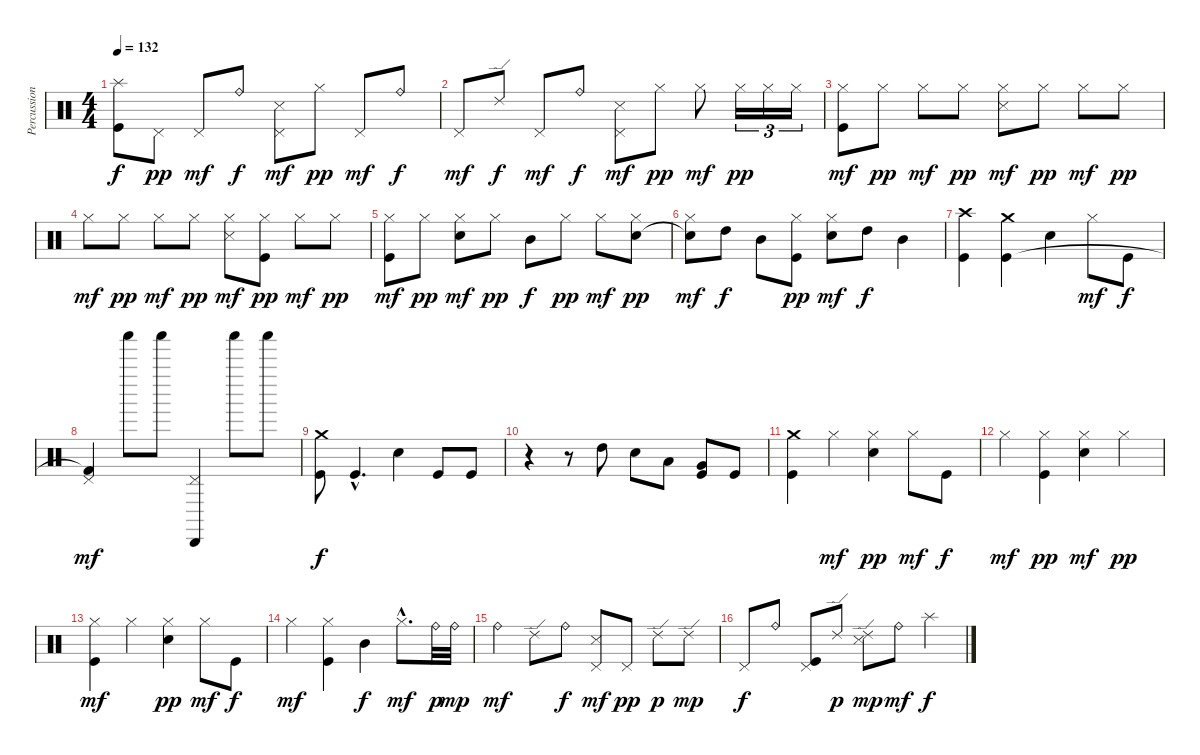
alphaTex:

\track ("Percussion" "Percussion") {instrument percussion}
\staff {score}
\articulation defaults
\ts (4 4)
\tempo 132
\clef neutral
\ks c
("Splash (hit)" "Kick (hit)").8{dy f} "Pedal Hi-Hat (hit)".8{dy pp} "Pedal Hi-Hat (hit)".8{dy mf} "Ride (bell)".8{dy f} ("Pedal Hi-Hat (hit)" "Snare (side stick) 3").8{dy mf} "Hi-Hat (closed)".8{dy pp} "Pedal Hi-Hat (hit)".8{dy mf} "Ride (bell)".8{dy f} |
"Pedal Hi-Hat (hit)".8{dy mf} "Ride (edge) 2".8{dy f} "Pedal Hi-Hat (hit)".8{dy mf} "Ride (bell)".8{dy f} ("Pedal Hi-Hat (hit)" "Snare (side stick) 3").8{dy mf} "Hi-Hat (closed)".8{dy pp} "Hi-Hat (closed)".8{dy mf} "Hi-Hat (closed)".16{tu (3 2) dy pp} "Hi-Hat (closed)".16{tu (3 2)} "Hi-Hat (closed)".16{tu (3 2)} |
("Hi-Hat (closed)" "Kick (hit)").8{dy mf} "Hi-Hat (closed)".8{dy pp} "Hi-Hat (closed)".8{dy mf} "Hi-Hat (closed)".8{dy pp} ("Hi-Hat (closed)" "Snare (side stick) 3").8{dy mf} "Hi-Hat (closed)".8{dy pp} "Hi-Hat (closed)".8{dy mf} "Hi-Hat (closed)".8{dy pp} |
"Hi-Hat (closed)".8{dy mf} "Hi-Hat (closed)".8{dy pp} "Hi-Hat (closed)".8{dy mf} "Hi-Hat (closed)".8{dy pp} ("Hi-Hat (closed)" "Snare (side stick) 3").8{dy mf} ("Hi-Hat (closed)" "Kick (hit)").8{dy pp} "Hi-Hat (closed)".8{dy mf} "Hi-Hat (closed)".8{dy pp} |
("Hi-Hat (closed)" "Kick (hit)").8{dy mf} "Hi-Hat (closed)".8{dy pp} ("Hi-Hat (closed)" "Snare (hit) 2").8{dy mf} "Hi-Hat (closed)".8{dy pp} "Mid Tom (hit)".8{dy f} "Hi-Hat (closed)".8{dy pp} "Hi-Hat (closed)".8{dy mf} ("Hi-Hat (closed)" "Snare (hit) 2").8{dy pp} |
("Hi-Hat (closed)" "Snare (hit)"{t}).8{dy mf} "High Tom (hit)".8{dy f} "Mid Tom (hit)".8 ("Hi-Hat (closed)" "Kick (hit)").8{dy pp} ("Hi-Hat (closed)" "Snare (hit) 2").8{dy mf} "High Tom (hit)".8{dy f} "Mid Tom (hit)".4 |
("Crash high (hit)" "Kick (hit)").4 ("Crash medium (hit)" "Kick (hit)").4 "Snare (hit) 2".4 "Hi-Hat (closed)".8{dy mf} "Kick (hit)".8{dy f} |
("Pedal Hi-Hat (hit)" "Kick (hit) 2"{t}).4{dy mf} "Shaker (hit)".8 "Shaker (hit)".8 ("Pedal Hi-Hat (hit)" "Cabasa (hit)").4 "Shaker (hit)".8 "Shaker (hit)".8 |
("Crash medium (hit)" "Kick (hit)").8{dy f} "Kick (hit)"{hac}.4{d} "Snare (hit) 2".4 "Kick (hit)".8 "Kick (hit)".8 |
r.4 r.8 "High Tom (hit)".8 "Snare (hit) 2".8 "Low Tom (hit)".8 ("Very Low Tom (hit)" "Kick (hit)").8 "Kick (hit)".8 |
("Crash medium (hit)" "Kick (hit)").4 "Hi-Hat (closed)".4{dy mf} ("Hi-Hat (closed)" "Snare (hit) 2").4{dy pp} "Hi-Hat (closed)".8{dy mf} "Kick (hit)".8{dy f} |
"Hi-Hat (closed)".4{dy mf} ("Hi-Hat (closed)" "Kick (hit)").4{dy pp} ("Hi-Hat (closed)" "Snare (hit) 2").4{dy mf} "Hi-Hat (closed)".4{dy pp} |
("Hi-Hat (closed)" "Kick (hit)").4{dy mf} "Hi-Hat (closed)".4 ("Hi-Hat (closed)" "Snare (hit) 2").4{dy pp} "Hi-Hat (closed)".8{dy mf} "Kick (hit)".8{dy f} |
"Hi-Hat (closed)".4{dy mf} ("Hi-Hat (closed)" "Kick (hit)").4 "Mid Tom (hit)".4{dy f} "Hi-Hat (closed)"{hac}.8{d dy mf} "Ride (bell)".32{dy p} "Ride (bell)".32{dy mp} |
"Ride (bell)".4{dy mf} "Ride (edge) 2".8 "Ride (bell)".8{dy f} ("Pedal Hi-Hat (hit)" "Snare (side stick) 3").8{dy mf} "Pedal Hi-Hat (hit)".8{dy pp} "Ride (edge) 2".8{dy p} "Ride (edge) 2".8{dy mp} |
"Pedal Hi-Hat (hit)".8{dy f} "Ride (bell)".8 ("Pedal Hi-Hat (hit)" "Kick (hit)").8 "Ride (edge) 2".8{dy p} ("Ride (edge) 2" "Snare (side stick) 3").8{dy mp} "Ride (bell)".8{dy mf} "Splash (hit)".4{dy f}
